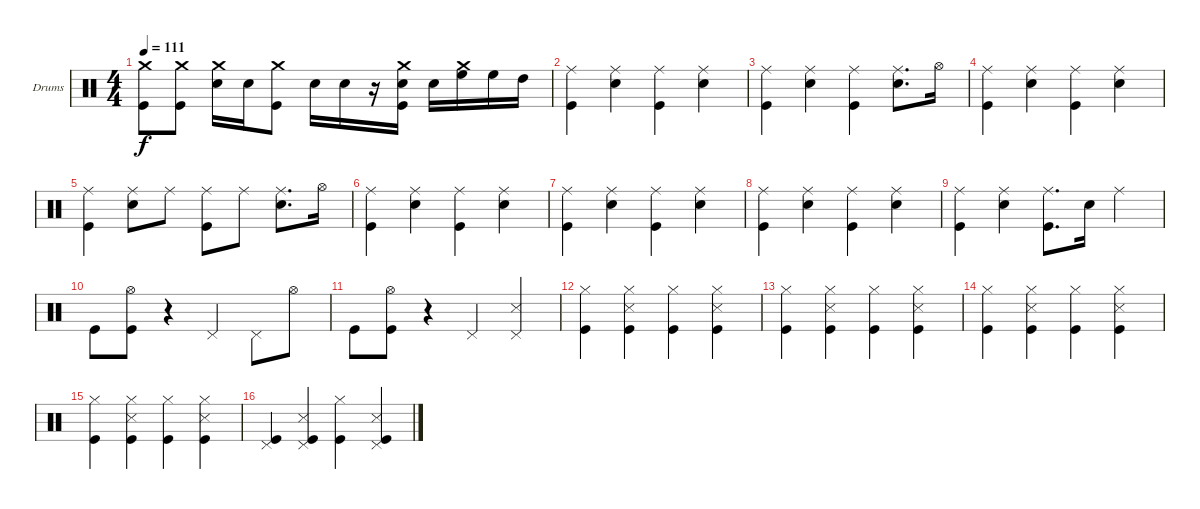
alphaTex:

\bracketExtendMode groupsimilarinstruments
\firstSystemTrackNameOrientation horizontal
\otherSystemsTrackNameOrientation horizontal
\track ("Drumkit" "Drums") {instrument percussion}
\staff {score}
\articulation defaults
\ts (4 4)
\tempo 111
\clef neutral
\ks c
("Crash medium (hit)" "Kick (hit)").8{dy f} ("Crash medium (hit)" "Kick (hit)").8 ("Crash medium (hit)" "Snare (hit) 2").16 "Snare (hit) 2".16 ("Crash medium (hit)" "Kick (hit)").8 "Snare (hit) 2".16 "Snare (hit) 2".16 r.16 ("Crash medium (hit)" "Snare (hit) 2" "Kick (hit)").16 "Snare (hit) 2".16 ("Crash medium (hit)" "High Floor Tom (hit)").16 "High Floor Tom (hit)".16 "High Tom (hit)".16 |
("Ride (middle)" "Kick (hit)").4 ("Ride (middle)" "Snare (hit) 2").4 ("Ride (middle)" "Kick (hit)").4 ("Ride (middle)" "Snare (hit) 2").4 |
("Ride (middle)" "Kick (hit)").4 ("Ride (middle)" "Snare (hit) 2").4 ("Ride (middle)" "Kick (hit)").4 ("Ride (middle)" "Snare (hit) 2").8{d} "Hi-Hat (open)".16 |
("Ride (middle)" "Kick (hit)").4 ("Ride (middle)" "Snare (hit) 2").4 ("Ride (middle)" "Kick (hit)").4 ("Ride (middle)" "Snare (hit) 2").4 |
("Ride (middle)" "Kick (hit)").4 ("Ride (middle)" "Snare (hit) 2").8 "Ride (middle)".8 ("Ride (middle)" "Kick (hit)").8 "Ride (middle)".8 ("Ride (middle)" "Snare (hit) 2").8{d} "Hi-Hat (open)".16 |
("Ride (middle)" "Kick (hit)").4 ("Ride (middle)" "Snare (hit) 2").4 ("Ride (middle)" "Kick (hit)").4 ("Ride (middle)" "Snare (hit) 2").4 |
("Ride (middle)" "Kick (hit)").4 ("Ride (middle)" "Snare (hit) 2").4 ("Ride (middle)" "Kick (hit)").4 ("Ride (middle)" "Snare (hit) 2").4 |
("Ride (middle)" "Kick (hit)").4 ("Ride (middle)" "Snare (hit) 2").4 ("Ride (middle)" "Kick (hit)").4 ("Ride (middle)" "Snare (hit) 2").4 |
("Ride (middle)" "Kick (hit)").4 ("Ride (middle)" "Snare (hit) 2").4 ("Ride (middle)" "Kick (hit)").8{d} "Snare (hit) 2".16 "Ride (middle)".4 |
"Kick (hit)".8 ("Hi-Hat (open)" "Kick (hit)").8 r.4 "Pedal Hi-Hat (hit)".4 "Pedal Hi-Hat (hit)".8 "Hi-Hat (open)".8 |
"Kick (hit)".8 ("Hi-Hat (open)" "Kick (hit)").8 r.4 "Pedal Hi-Hat (hit)".4 ("Pedal Hi-Hat (hit)" "Snare (side stick) 3").4 |
("Hi-Hat (closed)" "Kick (hit)").4 ("Hi-Hat (closed)" "Snare (side stick) 3" "Kick (hit)").4 ("Hi-Hat (closed)" "Kick (hit)").4 ("Hi-Hat (closed)" "Snare (side stick) 3" "Kick (hit)").4 |
("Hi-Hat (closed)" "Kick (hit)").4 ("Hi-Hat (closed)" "Snare (side stick) 3" "Kick (hit)").4 ("Hi-Hat (closed)" "Kick (hit)").4 ("Hi-Hat (closed)" "Snare (side stick) 3" "Kick (hit)").4 |
("Hi-Hat (closed)" "Kick (hit)").4 ("Hi-Hat (closed)" "Snare (side stick) 3" "Kick (hit)").4 ("Hi-Hat (closed)" "Kick (hit)").4 ("Hi-Hat (closed)" "Snare (side stick) 3" "Kick (hit)").4 |
("Hi-Hat (closed)" "Kick (hit)").4 ("Hi-Hat (closed)" "Snare (side stick) 3" "Kick (hit)").4 ("Hi-Hat (closed)" "Kick (hit)").4 ("Hi-Hat (closed)" "Snare (side stick) 3" "Kick (hit)").4 |
("Pedal Hi-Hat (hit)" "Kick (hit)").4 ("Pedal Hi-Hat (hit)" "Snare (side stick) 3" "Kick (hit)").4 ("Hi-Hat (closed)" "Kick (hit)").4 ("Pedal Hi-Hat (hit)" "Snare (side stick) 3" "Kick (hit)").4
